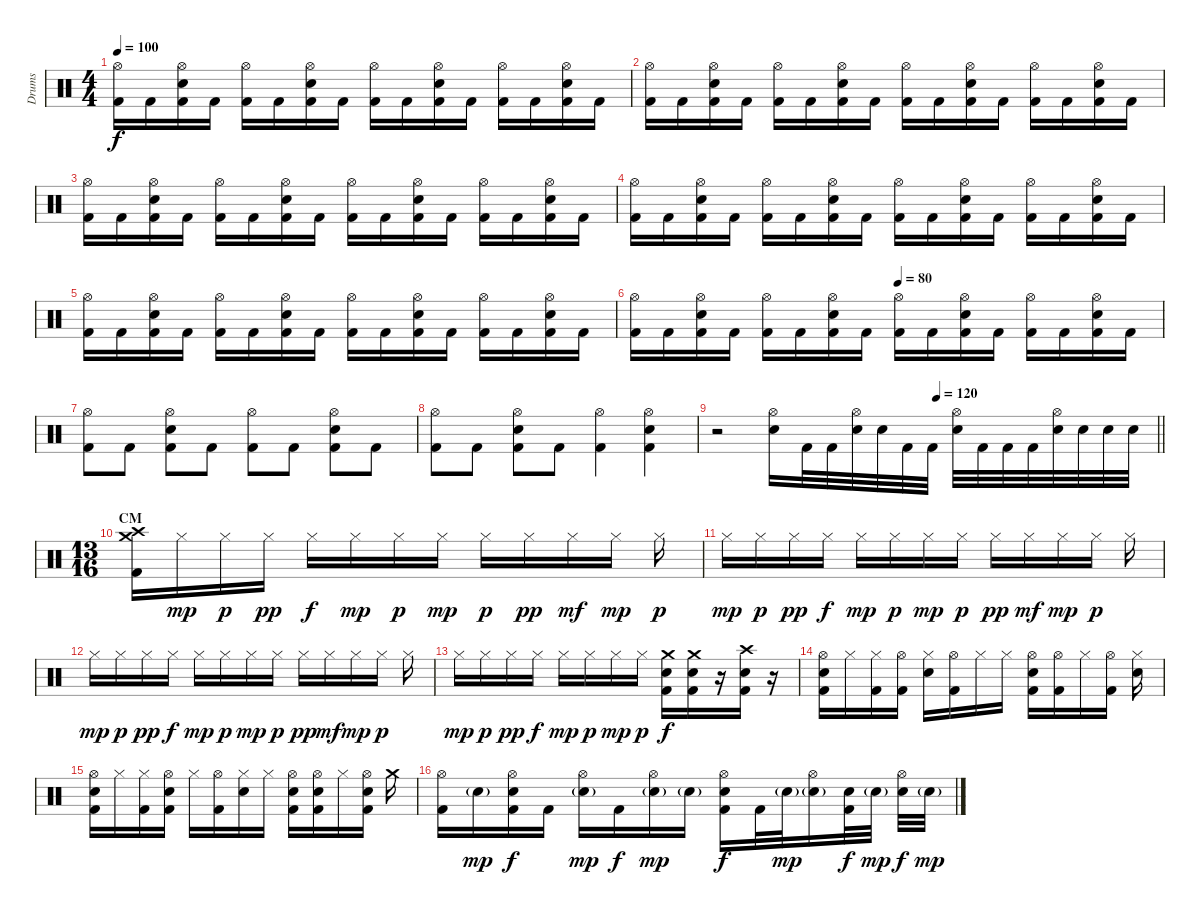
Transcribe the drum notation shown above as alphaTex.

\track ("Drums" "Drums") {instrument percussion}
\staff {score}
\articulation defaults
\ts (4 4)
\tempo 100
\clef neutral
\ks c
("Hi-Hat (open)" "Kick (hit) 2").16{dy f} "Kick (hit) 2".16 ("Hi-Hat (open)" "Snare (hit) 2" "Kick (hit) 2").16 "Kick (hit) 2".16 ("Hi-Hat (open)" "Kick (hit) 2").16 "Kick (hit) 2".16 ("Hi-Hat (open)" "Snare (hit) 2" "Kick (hit) 2").16 "Kick (hit) 2".16 ("Hi-Hat (open)" "Kick (hit) 2").16 "Kick (hit) 2".16 ("Hi-Hat (open)" "Snare (hit) 2" "Kick (hit) 2").16 "Kick (hit) 2".16 ("Hi-Hat (open)" "Kick (hit) 2").16 "Kick (hit) 2".16 ("Hi-Hat (open)" "Snare (hit) 2" "Kick (hit) 2").16 "Kick (hit) 2".16 |
("Hi-Hat (open)" "Kick (hit) 2").16 "Kick (hit) 2".16 ("Hi-Hat (open)" "Snare (hit) 2" "Kick (hit) 2").16 "Kick (hit) 2".16 ("Hi-Hat (open)" "Kick (hit) 2").16 "Kick (hit) 2".16 ("Hi-Hat (open)" "Snare (hit) 2" "Kick (hit) 2").16 "Kick (hit) 2".16 ("Hi-Hat (open)" "Kick (hit) 2").16 "Kick (hit) 2".16 ("Hi-Hat (open)" "Snare (hit) 2" "Kick (hit) 2").16 "Kick (hit) 2".16 ("Hi-Hat (open)" "Kick (hit) 2").16 "Kick (hit) 2".16 ("Hi-Hat (open)" "Snare (hit) 2" "Kick (hit) 2").16 "Kick (hit) 2".16 |
("Hi-Hat (open)" "Kick (hit) 2").16 "Kick (hit) 2".16 ("Hi-Hat (open)" "Snare (hit) 2" "Kick (hit) 2").16 "Kick (hit) 2".16 ("Hi-Hat (open)" "Kick (hit) 2").16 "Kick (hit) 2".16 ("Hi-Hat (open)" "Snare (hit) 2" "Kick (hit) 2").16 "Kick (hit) 2".16 ("Hi-Hat (open)" "Kick (hit) 2").16 "Kick (hit) 2".16 ("Hi-Hat (open)" "Snare (hit) 2" "Kick (hit) 2").16 "Kick (hit) 2".16 ("Hi-Hat (open)" "Kick (hit) 2").16 "Kick (hit) 2".16 ("Hi-Hat (open)" "Snare (hit) 2" "Kick (hit) 2").16 "Kick (hit) 2".16 |
("Hi-Hat (open)" "Kick (hit) 2").16 "Kick (hit) 2".16 ("Hi-Hat (open)" "Snare (hit) 2" "Kick (hit) 2").16 "Kick (hit) 2".16 ("Hi-Hat (open)" "Kick (hit) 2").16 "Kick (hit) 2".16 ("Hi-Hat (open)" "Snare (hit) 2" "Kick (hit) 2").16 "Kick (hit) 2".16 ("Hi-Hat (open)" "Kick (hit) 2").16 "Kick (hit) 2".16 ("Hi-Hat (open)" "Snare (hit) 2" "Kick (hit) 2").16 "Kick (hit) 2".16 ("Hi-Hat (open)" "Kick (hit) 2").16 "Kick (hit) 2".16 ("Hi-Hat (open)" "Snare (hit) 2" "Kick (hit) 2").16 "Kick (hit) 2".16 |
("Hi-Hat (open)" "Kick (hit) 2").16 "Kick (hit) 2".16 ("Hi-Hat (open)" "Snare (hit) 2" "Kick (hit) 2").16 "Kick (hit) 2".16 ("Hi-Hat (open)" "Kick (hit) 2").16 "Kick (hit) 2".16 ("Hi-Hat (open)" "Snare (hit) 2" "Kick (hit) 2").16 "Kick (hit) 2".16 ("Hi-Hat (open)" "Kick (hit) 2").16 "Kick (hit) 2".16 ("Hi-Hat (open)" "Snare (hit) 2" "Kick (hit) 2").16 "Kick (hit) 2".16 ("Hi-Hat (open)" "Kick (hit) 2").16 "Kick (hit) 2".16 ("Hi-Hat (open)" "Snare (hit) 2" "Kick (hit) 2").16 "Kick (hit) 2".16 |
\tempo (80 0.5)
("Hi-Hat (open)" "Kick (hit) 2").16 "Kick (hit) 2".16 ("Hi-Hat (open)" "Snare (hit) 2" "Kick (hit) 2").16 "Kick (hit) 2".16 ("Hi-Hat (open)" "Kick (hit) 2").16 "Kick (hit) 2".16 ("Hi-Hat (open)" "Snare (hit) 2" "Kick (hit) 2").16 "Kick (hit) 2".16 ("Hi-Hat (open)" "Kick (hit) 2").16 "Kick (hit) 2".16 ("Hi-Hat (open)" "Snare (hit) 2" "Kick (hit) 2").16 "Kick (hit) 2".16 ("Hi-Hat (open)" "Kick (hit) 2").16 "Kick (hit) 2".16 ("Hi-Hat (open)" "Snare (hit) 2" "Kick (hit) 2").16 "Kick (hit) 2".16 |
("Hi-Hat (open)" "Kick (hit) 2").8 "Kick (hit) 2".8 ("Hi-Hat (open)" "Snare (hit) 2" "Kick (hit) 2").8 "Kick (hit) 2".8 ("Hi-Hat (open)" "Kick (hit) 2").8 "Kick (hit) 2".8 ("Hi-Hat (open)" "Snare (hit) 2" "Kick (hit) 2").8 "Kick (hit) 2".8 |
("Hi-Hat (open)" "Kick (hit) 2").8 "Kick (hit) 2".8 ("Hi-Hat (open)" "Snare (hit) 2" "Kick (hit) 2").8 "Kick (hit) 2".8 ("Hi-Hat (open)" "Kick (hit) 2").4 ("Hi-Hat (open)" "Snare (hit) 2" "Kick (hit) 2").4 |
\tempo (120 0.5)
\barLineRight lightlight
r.2 ("Hi-Hat (open)" "Electric Snare (hit)").16 "Kick (hit) 2".32 "Kick (hit) 2".32 ("Hi-Hat (open)" "Electric Snare (hit)").32 "Electric Snare (hit)".32 "Kick (hit) 2".32 "Kick (hit) 2".32 ("Hi-Hat (open)" "Electric Snare (hit)").32 "Kick (hit) 2".32 "Kick (hit) 2".32 "Kick (hit) 2".32 ("Hi-Hat (open)" "Electric Snare (hit)").32 "Electric Snare (hit)".32 "Electric Snare (hit)".32 "Electric Snare (hit)".32 |
\ts (13 16)
\section ("" "CM")
("Crash medium (hit)" "Crash high (hit)" "Kick (hit) 2").16 "Hi-Hat (closed)".16{dy mp} "Hi-Hat (closed)".16{dy p} "Hi-Hat (closed)".16{dy pp} "Hi-Hat (closed)".16{dy f} "Hi-Hat (closed)".16{dy mp} "Hi-Hat (closed)".16{dy p} "Hi-Hat (closed)".16{dy mp} "Hi-Hat (closed)".16{dy p} "Hi-Hat (closed)".16{dy pp} "Hi-Hat (closed)".16{dy mf} "Hi-Hat (closed)".16{dy mp} "Hi-Hat (closed)".16{dy p} |
"Hi-Hat (closed)".16{dy mp} "Hi-Hat (closed)".16{dy p} "Hi-Hat (closed)".16{dy pp} "Hi-Hat (closed)".16{dy f} "Hi-Hat (closed)".16{dy mp} "Hi-Hat (closed)".16{dy p} "Hi-Hat (closed)".16{dy mp} "Hi-Hat (closed)".16{dy p} "Hi-Hat (closed)".16{dy pp} "Hi-Hat (closed)".16{dy mf} "Hi-Hat (closed)".16{dy mp} "Hi-Hat (closed)".16{dy p} "Hi-Hat (closed)".16 |
"Hi-Hat (closed)".16{dy mp} "Hi-Hat (closed)".16{dy p} "Hi-Hat (closed)".16{dy pp} "Hi-Hat (closed)".16{dy f} "Hi-Hat (closed)".16{dy mp} "Hi-Hat (closed)".16{dy p} "Hi-Hat (closed)".16{dy mp} "Hi-Hat (closed)".16{dy p} "Hi-Hat (closed)".16{dy pp} "Hi-Hat (closed)".16{dy mf} "Hi-Hat (closed)".16{dy mp} "Hi-Hat (closed)".16{dy p} "Hi-Hat (closed)".16 |
"Hi-Hat (closed)".16{dy mp} "Hi-Hat (closed)".16{dy p} "Hi-Hat (closed)".16{dy pp} "Hi-Hat (closed)".16{dy f} "Hi-Hat (closed)".16{dy mp} "Hi-Hat (closed)".16{dy p} "Hi-Hat (closed)".16{dy mp} "Hi-Hat (closed)".16{dy p} ("Crash medium (hit)" "Electric Snare (hit)" "Kick (hit) 2").16{dy f} ("Crash medium (hit)" "Electric Snare (hit)" "Kick (hit) 2").16 r.16 ("Crash high (hit)" "Electric Snare (hit)" "Kick (hit) 2").16 r.16 |
("Hi-Hat (open)" "Electric Snare (hit)" "Kick (hit) 2").16 "Hi-Hat (closed)".16 ("Hi-Hat (closed)" "Kick (hit) 2").16 ("Hi-Hat (open)" "Kick (hit) 2").16 ("Hi-Hat (closed)" "Electric Snare (hit)").16 ("Hi-Hat (open)" "Kick (hit) 2").16 "Hi-Hat (closed)".16 "Hi-Hat (closed)".16 ("Hi-Hat (open)" "Electric Snare (hit)" "Kick (hit) 2").16 ("Hi-Hat (open)" "Kick (hit) 2").16 "Hi-Hat (closed)".16 ("Hi-Hat (open)" "Kick (hit) 2").16 ("Hi-Hat (closed)" "Electric Snare (hit)").16 |
("Hi-Hat (open)" "Electric Snare (hit)" "Kick (hit) 2").16 "Hi-Hat (closed)".16 ("Hi-Hat (closed)" "Kick (hit) 2").16 ("Hi-Hat (open)" "Electric Snare (hit)" "Kick (hit) 2").16 "Hi-Hat (closed)".16 ("Hi-Hat (open)" "Kick (hit) 2").16 ("Hi-Hat (closed)" "Electric Snare (hit)").16 "Hi-Hat (closed)".16 ("Hi-Hat (open)" "Electric Snare (hit)" "Kick (hit) 2").16 ("Hi-Hat (open)" "Electric Snare (hit)" "Kick (hit) 2").16 "Hi-Hat (closed)".16 ("Hi-Hat (open)" "Electric Snare (hit)" "Kick (hit) 2").16 "Crash medium (hit)".16 |
("Hi-Hat (open)" "Kick (hit) 2").16 "Electric Snare (hit)"{g}.16{dy mp} ("Hi-Hat (open)" "Electric Snare (hit)" "Kick (hit) 2").16{dy f} "Kick (hit) 2".16 ("Hi-Hat (open)" "Electric Snare (hit)"{g}).16{dy mp} "Kick (hit) 2".16{dy f} ("Hi-Hat (open)" "Electric Snare (hit)"{g}).16{dy mp} "Electric Snare (hit)"{g}.16 ("Hi-Hat (open)" "Electric Snare (hit)" "Kick (hit) 2").16{dy f} "Kick (hit) 2".32 "Electric Snare (hit)"{g}.32{dy mp} ("Hi-Hat (open)" "Electric Snare (hit)"{g}).16 ("Electric Snare (hit)" "Kick (hit) 2").32{dy f} "Electric Snare (hit)"{g}.32{dy mp} ("Hi-Hat (open)" "Electric Snare (hit)").32{dy f} "Electric Snare (hit)"{g}.32{dy mp}
